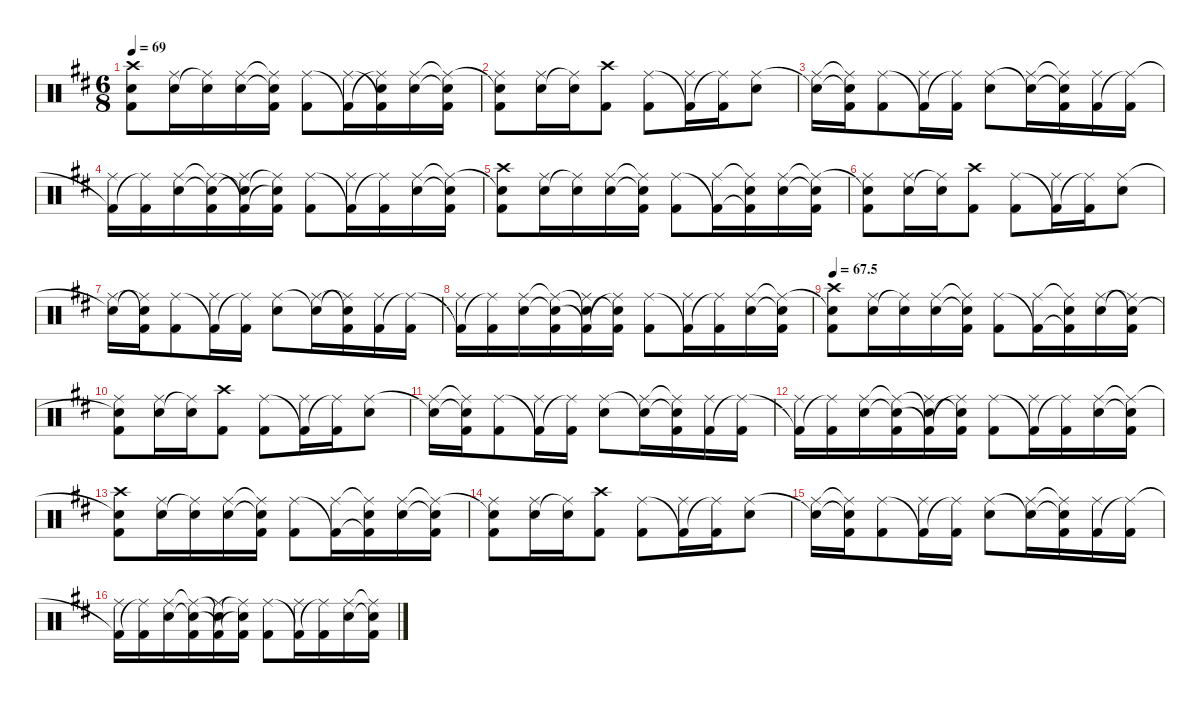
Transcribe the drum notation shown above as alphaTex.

\defaultSystemsLayout 4
\hideDynamics
\bracketExtendMode nobrackets
\singleTrackTrackNamePolicy hidden
\multiTrackTrackNamePolicy hidden
\firstSystemTrackNameMode fullname
\firstSystemTrackNameOrientation horizontal
\otherSystemsTrackNameOrientation horizontal
\track ("Drumkit" "drm.") {defaultSystemsLayout 4 instrument percussion}
\staff {score}
\articulation defaults
\ts (6 8)
\tempo 69
\clef neutral
\ks bminor
("Snare (hit) 2"{t acc forcenatural} "Kick (hit) 2"{acc forcenatural} "Crash high (hit)"{acc #}).8{dy ff beam Down} ("Snare (hit) 2"{acc forcenatural} "Ride (middle)"{acc #}).16{beam Down} ("Ride (middle)"{t acc #} "Snare (hit) 2"{acc forcenatural}).16{beam Down} ("Snare (hit) 2"{acc forcenatural} "Ride (middle)"{acc #}).16{beam Down} ("Snare (hit) 2"{t acc forcenatural} "Ride (middle)"{t acc #} "Kick (hit) 2"{acc forcenatural}).16{beam Down} ("Ride (middle)"{acc #} "Kick (hit) 2"{acc forcenatural}).8{beam Down} ("Kick (hit) 2"{t acc forcenatural} "Ride (middle)"{acc #}).16{beam Down} ("Ride (middle)"{t acc #} "Kick (hit) 2"{t acc forcenatural} "Snare (hit) 2"{acc forcenatural}).16{beam Down} ("Ride (middle)"{acc #} "Snare (hit) 2"{acc forcenatural}).16{beam Down} ("Ride (middle)"{t acc #} "Snare (hit) 2"{t acc forcenatural} "Kick (hit) 2"{acc forcenatural}).16{beam Down} |
("Snare (hit) 2"{t acc forcenatural} "Kick (hit) 2"{acc forcenatural} "Ride (middle)"{acc #}).8{beam Down} ("Snare (hit) 2"{acc forcenatural} "Ride (middle)"{acc #}).16{beam Down} ("Ride (middle)"{t acc #} "Snare (hit) 2"{acc forcenatural}).16{beam Down} ("Kick (hit) 2"{acc forcenatural} "Crash high (hit)"{acc #}).8{beam Down} ("Ride (middle)"{acc #} "Kick (hit) 2"{acc forcenatural}).8{beam Down} ("Kick (hit) 2"{t acc forcenatural} "Ride (middle)"{acc #}).16{beam Down} ("Ride (middle)"{t acc #} "Kick (hit) 2"{acc forcenatural}).16{beam Down} ("Ride (middle)"{acc #} "Snare (hit) 2"{acc forcenatural}).8{beam Down} |
("Snare (hit) 2"{t acc forcenatural} "Ride (middle)"{acc #}).16{beam Down} ("Snare (hit) 2"{t acc forcenatural} "Ride (middle)"{t acc #} "Kick (hit) 2"{acc forcenatural}).16{beam Down} ("Ride (middle)"{acc #} "Kick (hit) 2"{acc forcenatural}).8{beam Down} ("Kick (hit) 2"{t acc forcenatural} "Ride (middle)"{acc #}).16{beam Down} ("Ride (middle)"{t acc #} "Kick (hit) 2"{acc forcenatural}).16{beam Down} ("Ride (middle)"{acc #} "Snare (hit) 2"{acc forcenatural}).8{beam Down} ("Snare (hit) 2"{t acc forcenatural} "Ride (middle)"{acc #}).16{beam Down} ("Snare (hit) 2"{t acc forcenatural} "Ride (middle)"{t acc #} "Kick (hit) 2"{acc forcenatural}).16{beam Down} ("Kick (hit) 2"{acc forcenatural} "Ride (middle)"{acc #}).16{beam Down} ("Ride (middle)"{t acc #} "Kick (hit) 2"{acc forcenatural}).16{beam Down} |
("Kick (hit) 2"{t acc forcenatural} "Ride (middle)"{acc #}).16{beam Down} ("Ride (middle)"{t acc #} "Kick (hit) 2"{acc forcenatural}).16{beam Down} ("Ride (middle)"{acc #} "Snare (hit) 2"{acc forcenatural}).16{beam Down} ("Ride (middle)"{t acc #} "Snare (hit) 2"{t acc forcenatural} "Kick (hit) 2"{acc forcenatural}).16{beam Down} ("Kick (hit) 2"{t acc forcenatural} "Snare (hit) 2"{t acc forcenatural} "Ride (middle)"{acc #}).16{beam Down} ("Snare (hit) 2"{t acc forcenatural} "Ride (middle)"{t acc #} "Kick (hit) 2"{acc forcenatural}).16{beam Down} ("Ride (middle)"{acc #} "Kick (hit) 2"{acc forcenatural}).8{beam Down} ("Kick (hit) 2"{t acc forcenatural} "Ride (middle)"{acc #}).16{beam Down} ("Ride (middle)"{t acc #} "Kick (hit) 2"{acc forcenatural}).16{beam Down} ("Ride (middle)"{acc #} "Snare (hit) 2"{acc forcenatural}).16{beam Down} ("Ride (middle)"{t acc #} "Snare (hit) 2"{t acc forcenatural} "Kick (hit) 2"{acc forcenatural}).16{beam Down} |
("Snare (hit) 2"{t acc forcenatural} "Kick (hit) 2"{acc forcenatural} "Crash high (hit)"{acc #}).8{beam Down} ("Snare (hit) 2"{acc forcenatural} "Ride (middle)"{acc #}).16{beam Down} ("Ride (middle)"{t acc #} "Snare (hit) 2"{acc forcenatural}).16{beam Down} ("Snare (hit) 2"{acc forcenatural} "Ride (middle)"{acc #}).16{beam Down} ("Snare (hit) 2"{t acc forcenatural} "Ride (middle)"{t acc #} "Kick (hit) 2"{acc forcenatural}).16{beam Down} ("Ride (middle)"{acc #} "Kick (hit) 2"{acc forcenatural}).8{beam Down} ("Kick (hit) 2"{t acc forcenatural} "Ride (middle)"{acc #}).16{beam Down} ("Kick (hit) 2"{t acc forcenatural} "Ride (middle)"{t acc #} "Snare (hit) 2"{acc forcenatural}).16{beam Down} ("Ride (middle)"{acc #} "Snare (hit) 2"{acc forcenatural}).16{beam Down} ("Ride (middle)"{t acc #} "Snare (hit) 2"{t acc forcenatural} "Kick (hit) 2"{acc forcenatural}).16{beam Down} |
("Snare (hit) 2"{t acc forcenatural} "Kick (hit) 2"{acc forcenatural} "Ride (middle)"{acc #}).8{beam Down} ("Snare (hit) 2"{acc forcenatural} "Ride (middle)"{acc #}).16{beam Down} ("Ride (middle)"{t acc #} "Snare (hit) 2"{acc forcenatural}).16{beam Down} ("Kick (hit) 2"{acc forcenatural} "Crash high (hit)"{acc #}).8{beam Down} ("Ride (middle)"{acc #} "Kick (hit) 2"{acc forcenatural}).8{beam Down} ("Kick (hit) 2"{t acc forcenatural} "Ride (middle)"{acc #}).16{beam Down} ("Ride (middle)"{t acc #} "Kick (hit) 2"{acc forcenatural}).16{beam Down} ("Ride (middle)"{acc #} "Snare (hit) 2"{acc forcenatural}).8{beam Down} |
("Snare (hit) 2"{t acc forcenatural} "Ride (middle)"{acc #}).16{beam Down} ("Ride (middle)"{t acc #} "Snare (hit) 2"{t acc forcenatural} "Kick (hit) 2"{acc forcenatural}).16{beam Down} ("Ride (middle)"{acc #} "Kick (hit) 2"{acc forcenatural}).8{beam Down} ("Kick (hit) 2"{t acc forcenatural} "Ride (middle)"{acc #}).16{beam Down} ("Ride (middle)"{t acc #} "Kick (hit) 2"{acc forcenatural}).16{beam Down} ("Ride (middle)"{acc #} "Snare (hit) 2"{acc forcenatural}).8{beam Down} ("Snare (hit) 2"{t acc forcenatural} "Ride (middle)"{acc #}).16{beam Down} ("Ride (middle)"{t acc #} "Snare (hit) 2"{t acc forcenatural} "Kick (hit) 2"{acc forcenatural}).16{beam Down} ("Kick (hit) 2"{acc forcenatural} "Ride (middle)"{acc #}).16{beam Down} ("Ride (middle)"{t acc #} "Kick (hit) 2"{acc forcenatural}).16{beam Down} |
("Kick (hit) 2"{t acc forcenatural} "Ride (middle)"{acc #}).16{beam Down} ("Ride (middle)"{t acc #} "Kick (hit) 2"{acc forcenatural}).16{beam Down} ("Ride (middle)"{acc #} "Snare (hit) 2"{acc forcenatural}).16{beam Down} ("Ride (middle)"{t acc #} "Snare (hit) 2"{t acc forcenatural} "Kick (hit) 2"{acc forcenatural}).16{beam Down} ("Snare (hit) 2"{t acc forcenatural} "Kick (hit) 2"{t acc forcenatural} "Ride (middle)"{acc #}).16{beam Down} ("Snare (hit) 2"{t acc forcenatural} "Ride (middle)"{t acc #} "Kick (hit) 2"{acc forcenatural}).16{beam Down} ("Ride (middle)"{acc #} "Kick (hit) 2"{acc forcenatural}).8{beam Down} ("Kick (hit) 2"{t acc forcenatural} "Ride (middle)"{acc #}).16{beam Down} ("Ride (middle)"{t acc #} "Kick (hit) 2"{acc forcenatural}).16{beam Down} ("Ride (middle)"{acc #} "Snare (hit) 2"{acc forcenatural}).16{beam Down} ("Ride (middle)"{t acc #} "Snare (hit) 2"{t acc forcenatural} "Kick (hit) 2"{acc forcenatural}).16{beam Down} |
\tempo
67.5 ("Snare (hit) 2"{t acc forcenatural} "Kick (hit) 2"{acc forcenatural} "Crash high (hit)"{acc #}).8{beam Down} ("Snare (hit) 2"{acc forcenatural} "Ride (middle)"{acc #}).16{beam Down} ("Ride (middle)"{t acc #} "Snare (hit) 2"{acc forcenatural}).16{beam Down} ("Snare (hit) 2"{acc forcenatural} "Ride (middle)"{acc #}).16{beam Down} ("Snare (hit) 2"{t acc forcenatural} "Ride (middle)"{t acc #} "Kick (hit) 2"{acc forcenatural}).16{beam Down} ("Ride (middle)"{acc #} "Kick (hit) 2"{acc forcenatural}).8{beam Down} ("Kick (hit) 2"{t acc forcenatural} "Ride (middle)"{acc #}).16{beam Down} ("Kick (hit) 2"{t acc forcenatural} "Ride (middle)"{t acc #} "Snare (hit) 2"{acc forcenatural}).16{beam Down} ("Ride (middle)"{acc #} "Snare (hit) 2"{acc forcenatural}).16{beam Down} ("Snare (hit) 2"{t acc forcenatural} "Ride (middle)"{t acc #} "Kick (hit) 2"{acc forcenatural}).16{beam Down} |
("Snare (hit) 2"{t acc forcenatural} "Kick (hit) 2"{acc forcenatural} "Ride (middle)"{acc #}).8{beam Down} ("Snare (hit) 2"{acc forcenatural} "Ride (middle)"{acc #}).16{beam Down} ("Ride (middle)"{t acc #} "Snare (hit) 2"{acc forcenatural}).16{beam Down} ("Kick (hit) 2"{acc forcenatural} "Crash high (hit)"{acc #}).8{beam Down} ("Ride (middle)"{acc #} "Kick (hit) 2"{acc forcenatural}).8{beam Down} ("Kick (hit) 2"{t acc forcenatural} "Ride (middle)"{acc #}).16{beam Down} ("Ride (middle)"{t acc #} "Kick (hit) 2"{acc forcenatural}).16{beam Down} ("Ride (middle)"{acc #} "Snare (hit) 2"{acc forcenatural}).8{beam Down} |
("Snare (hit) 2"{t acc forcenatural} "Ride (middle)"{acc #}).16{beam Down} ("Snare (hit) 2"{t acc forcenatural} "Ride (middle)"{t acc #} "Kick (hit) 2"{acc forcenatural}).16{beam Down} ("Ride (middle)"{acc #} "Kick (hit) 2"{acc forcenatural}).8{beam Down} ("Kick (hit) 2"{t acc forcenatural} "Ride (middle)"{acc #}).16{beam Down} ("Ride (middle)"{t acc #} "Kick (hit) 2"{acc forcenatural}).16{beam Down} ("Ride (middle)"{acc #} "Snare (hit) 2"{acc forcenatural}).8{beam Down} ("Snare (hit) 2"{t acc forcenatural} "Ride (middle)"{acc #}).16{beam Down} ("Snare (hit) 2"{t acc forcenatural} "Ride (middle)"{t acc #} "Kick (hit) 2"{acc forcenatural}).16{beam Down} ("Kick (hit) 2"{acc forcenatural} "Ride (middle)"{acc #}).16{beam Down} ("Ride (middle)"{t acc #} "Kick (hit) 2"{acc forcenatural}).16{beam Down} |
("Kick (hit) 2"{t acc forcenatural} "Ride (middle)"{acc #}).16{beam Down} ("Ride (middle)"{t acc #} "Kick (hit) 2"{acc forcenatural}).16{beam Down} ("Ride (middle)"{acc #} "Snare (hit) 2"{acc forcenatural}).16{beam Down} ("Ride (middle)"{t acc #} "Snare (hit) 2"{t acc forcenatural} "Kick (hit) 2"{acc forcenatural}).16{beam Down} ("Snare (hit) 2"{t acc forcenatural} "Kick (hit) 2"{t acc forcenatural} "Ride (middle)"{acc #}).16{beam Down} ("Snare (hit) 2"{t acc forcenatural} "Ride (middle)"{t acc #} "Kick (hit) 2"{acc forcenatural}).16{beam Down} ("Ride (middle)"{acc #} "Kick (hit) 2"{acc forcenatural}).8{beam Down} ("Kick (hit) 2"{t acc forcenatural} "Ride (middle)"{acc #}).16{beam Down} ("Ride (middle)"{t acc #} "Kick (hit) 2"{acc forcenatural}).16{beam Down} ("Ride (middle)"{acc #} "Snare (hit) 2"{acc forcenatural}).16{beam Down} ("Ride (middle)"{t acc #} "Snare (hit) 2"{t acc forcenatural} "Kick (hit) 2"{acc forcenatural}).16{beam Down} |
("Snare (hit) 2"{t acc forcenatural} "Kick (hit) 2"{acc forcenatural} "Crash high (hit)"{acc #}).8{beam Down} ("Snare (hit) 2"{acc forcenatural} "Ride (middle)"{acc #}).16{beam Down} ("Ride (middle)"{t acc #} "Snare (hit) 2"{acc forcenatural}).16{beam Down} ("Snare (hit) 2"{acc forcenatural} "Ride (middle)"{acc #}).16{beam Down} ("Snare (hit) 2"{t acc forcenatural} "Ride (middle)"{t acc #} "Kick (hit) 2"{acc forcenatural}).16{beam Down} ("Ride (middle)"{acc #} "Kick (hit) 2"{acc forcenatural}).8{beam Down} ("Kick (hit) 2"{t acc forcenatural} "Ride (middle)"{acc #}).16{beam Down} ("Kick (hit) 2"{t acc forcenatural} "Ride (middle)"{t acc #} "Snare (hit) 2"{acc forcenatural}).16{beam Down} ("Ride (middle)"{acc #} "Snare (hit) 2"{acc forcenatural}).16{beam Down} ("Ride (middle)"{t acc #} "Snare (hit) 2"{t acc forcenatural} "Kick (hit) 2"{acc forcenatural}).16{beam Down} |
("Snare (hit) 2"{t acc forcenatural} "Kick (hit) 2"{acc forcenatural} "Ride (middle)"{acc #}).8{beam Down} ("Snare (hit) 2"{acc forcenatural} "Ride (middle)"{acc #}).16{beam Down} ("Ride (middle)"{t acc #} "Snare (hit) 2"{acc forcenatural}).16{beam Down} ("Kick (hit) 2"{acc forcenatural} "Crash high (hit)"{acc #}).8{beam Down} ("Ride (middle)"{acc #} "Kick (hit) 2"{acc forcenatural}).8{beam Down} ("Kick (hit) 2"{t acc forcenatural} "Ride (middle)"{acc #}).16{beam Down} ("Ride (middle)"{t acc #} "Kick (hit) 2"{acc forcenatural}).16{beam Down} ("Ride (middle)"{acc #} "Snare (hit) 2"{acc forcenatural}).8{beam Down} |
("Snare (hit) 2"{t acc forcenatural} "Ride (middle)"{acc #}).16{beam Down} ("Snare (hit) 2"{t acc forcenatural} "Ride (middle)"{t acc #} "Kick (hit) 2"{acc forcenatural}).16{beam Down} ("Ride (middle)"{acc #} "Kick (hit) 2"{acc forcenatural}).8{beam Down} ("Kick (hit) 2"{t acc forcenatural} "Ride (middle)"{acc #}).16{beam Down} ("Ride (middle)"{t acc #} "Kick (hit) 2"{acc forcenatural}).16{beam Down} ("Ride (middle)"{acc #} "Snare (hit) 2"{acc forcenatural}).8{beam Down} ("Snare (hit) 2"{t acc forcenatural} "Ride (middle)"{acc #}).16{beam Down} ("Snare (hit) 2"{t acc forcenatural} "Ride (middle)"{t acc #} "Kick (hit) 2"{acc forcenatural}).16{beam Down} ("Kick (hit) 2"{acc forcenatural} "Ride (middle)"{acc #}).16{beam Down} ("Ride (middle)"{t acc #} "Kick (hit) 2"{acc forcenatural}).16{beam Down} |
("Kick (hit) 2"{t acc forcenatural} "Ride (middle)"{acc #}).16{beam Down} ("Ride (middle)"{t acc #} "Kick (hit) 2"{acc forcenatural}).16{beam Down} ("Ride (middle)"{acc #} "Snare (hit) 2"{acc forcenatural}).16{beam Down} ("Ride (middle)"{t acc #} "Snare (hit) 2"{t acc forcenatural} "Kick (hit) 2"{acc forcenatural}).16{beam Down} ("Snare (hit) 2"{t acc forcenatural} "Kick (hit) 2"{t acc forcenatural} "Ride (middle)"{acc #}).16{beam Down} ("Ride (middle)"{t acc #} "Snare (hit) 2"{t acc forcenatural} "Kick (hit) 2"{acc forcenatural}).16{beam Down} ("Ride (middle)"{acc #} "Kick (hit) 2"{acc forcenatural}).8{beam Down} ("Kick (hit) 2"{t acc forcenatural} "Ride (middle)"{acc #}).16{beam Down} ("Ride (middle)"{t acc #} "Kick (hit) 2"{acc forcenatural}).16{beam Down} ("Ride (middle)"{acc #} "Snare (hit) 2"{acc forcenatural}).16{beam Down} ("Ride (middle)"{t acc #} "Snare (hit) 2"{t acc forcenatural} "Kick (hit) 2"{acc forcenatural}).16{beam Down}
